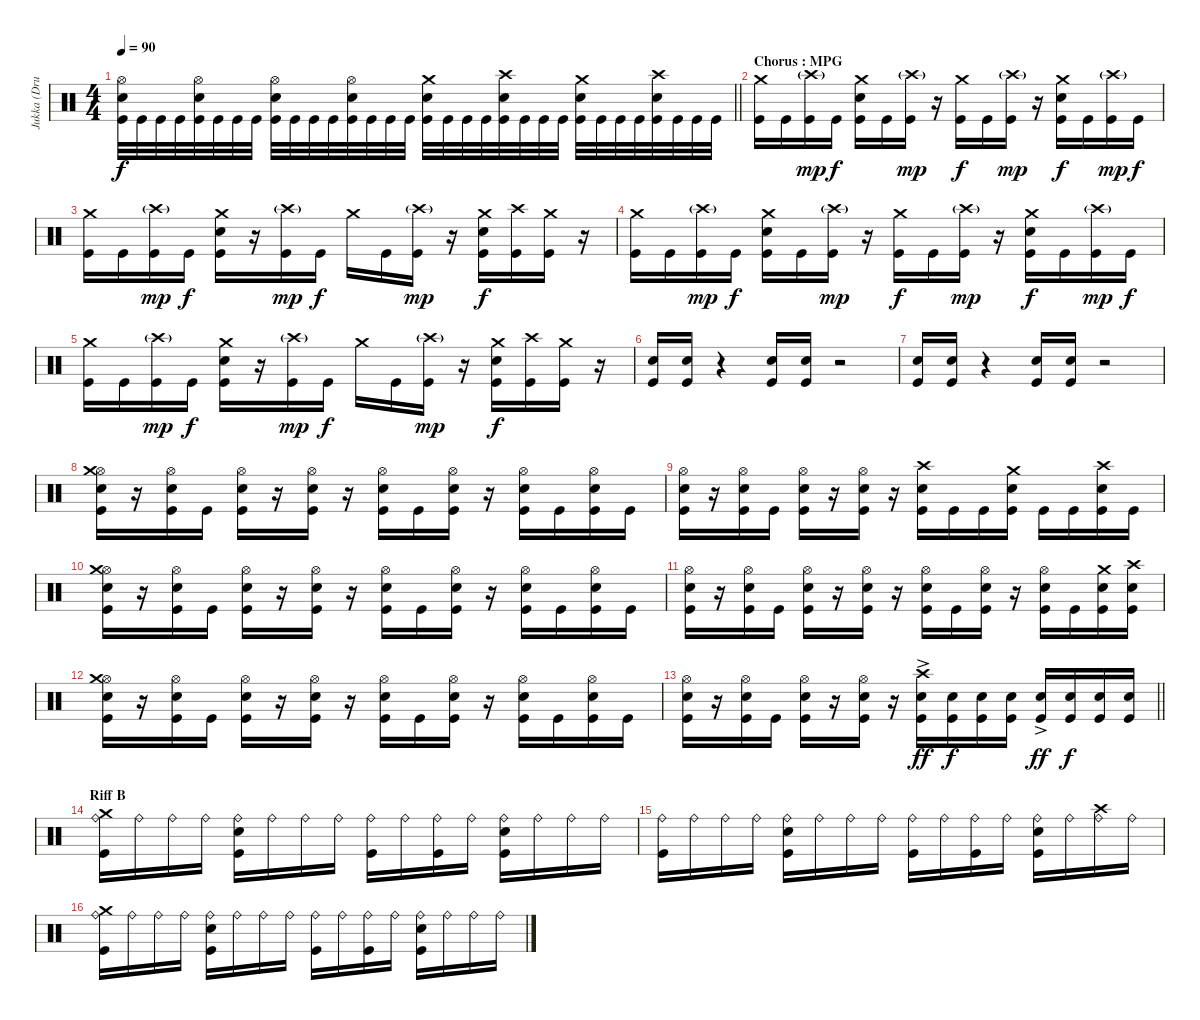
\track ("Jukka (Drums)" "Jukka (Dru") {instrument percussion}
\staff {score}
\articulation defaults
\ts (4 4)
\tempo 90
\clef neutral
\barLineRight lightlight
\ks c
("Hi-Hat (open)" "Snare (hit) 2" "Kick (hit)").32{dy f volume 16} "Kick (hit)".32 "Kick (hit)".32 "Kick (hit)".32 ("Hi-Hat (open)" "Snare (hit) 2" "Kick (hit)").32 "Kick (hit)".32 "Kick (hit)".32 "Kick (hit)".32 ("Hi-Hat (open)" "Snare (hit) 2" "Kick (hit)").32 "Kick (hit)".32 "Kick (hit)".32 "Kick (hit)".32 ("Hi-Hat (open)" "Snare (hit) 2" "Kick (hit)").32 "Kick (hit)".32 "Kick (hit)".32 "Kick (hit)".32 ("Crash medium (hit)" "Snare (hit) 2" "Kick (hit)").32 "Kick (hit)".32 "Kick (hit)".32 "Kick (hit)".32 ("Crash high (hit)" "Snare (hit) 2" "Kick (hit)").32 "Kick (hit)".32 "Kick (hit)".32 "Kick (hit)".32 ("Crash medium (hit)" "Snare (hit) 2" "Kick (hit)").32 "Kick (hit)".32 "Kick (hit)".32 "Kick (hit)".32 ("Crash high (hit)" "Snare (hit) 2" "Kick (hit)").32 "Kick (hit)".32 "Kick (hit)".32 "Kick (hit)".32 |
\section ("" "Chorus : MPG")
("Crash medium (hit)" "Kick (hit)").16 "Kick (hit)".16 ("Crash high (hit)"{g} "Kick (hit)").16{dy mp} "Kick (hit)".16{dy f} ("Crash medium (hit)" "Snare (hit) 2" "Kick (hit)").16 "Kick (hit)".16 ("Crash high (hit)"{g} "Kick (hit)").16{dy mp} r.16 ("Crash medium (hit)" "Kick (hit)").16{dy f} "Kick (hit)".16 ("Crash high (hit)"{g} "Kick (hit)").16{dy mp} r.16 ("Crash medium (hit)" "Snare (hit) 2" "Kick (hit)").16{dy f} "Kick (hit)".16 ("Crash high (hit)"{g} "Kick (hit)").16{dy mp} "Kick (hit)".16{dy f} |
("Crash medium (hit)" "Kick (hit)").16 "Kick (hit)".16 ("Crash high (hit)"{g} "Kick (hit)").16{dy mp} "Kick (hit)".16{dy f} ("Crash medium (hit)" "Snare (hit) 2" "Kick (hit)").16 r.16 ("Crash high (hit)"{g} "Kick (hit)").16{dy mp} "Kick (hit)".16{dy f} "Crash medium (hit)".16 "Kick (hit)".16 ("Crash high (hit)"{g} "Kick (hit)").16{dy mp} r.16 ("Crash medium (hit)" "Snare (hit) 2" "Kick (hit)").16{dy f} ("Crash high (hit)" "Kick (hit)").16 ("Crash medium (hit)" "Kick (hit)").16 r.16 |
("Crash medium (hit)" "Kick (hit)").16 "Kick (hit)".16 ("Crash high (hit)"{g} "Kick (hit)").16{dy mp} "Kick (hit)".16{dy f} ("Crash medium (hit)" "Snare (hit) 2" "Kick (hit)").16 "Kick (hit)".16 ("Crash high (hit)"{g} "Kick (hit)").16{dy mp} r.16 ("Crash medium (hit)" "Kick (hit)").16{dy f} "Kick (hit)".16 ("Crash high (hit)"{g} "Kick (hit)").16{dy mp} r.16 ("Crash medium (hit)" "Snare (hit) 2" "Kick (hit)").16{dy f} "Kick (hit)".16 ("Crash high (hit)"{g} "Kick (hit)").16{dy mp} "Kick (hit)".16{dy f} |
("Crash medium (hit)" "Kick (hit)").16 "Kick (hit)".16 ("Crash high (hit)"{g} "Kick (hit)").16{dy mp} "Kick (hit)".16{dy f} ("Crash medium (hit)" "Snare (hit) 2" "Kick (hit)").16 r.16 ("Crash high (hit)"{g} "Kick (hit)").16{dy mp} "Kick (hit)".16{dy f} "Crash medium (hit)".16 "Kick (hit)".16 ("Crash high (hit)"{g} "Kick (hit)").16{dy mp} r.16 ("Crash medium (hit)" "Snare (hit) 2" "Kick (hit)").16{dy f} ("Crash high (hit)" "Kick (hit)").16 ("Crash medium (hit)" "Kick (hit)").16 r.16 |
("Snare (hit) 2" "Kick (hit)").16 ("Snare (hit) 2" "Kick (hit)").16 r.4 ("Snare (hit) 2" "Kick (hit)").16 ("Snare (hit) 2" "Kick (hit)").16 r.2 |
("Snare (hit) 2" "Kick (hit)").16 ("Snare (hit) 2" "Kick (hit)").16 r.4 ("Snare (hit) 2" "Kick (hit)").16 ("Snare (hit) 2" "Kick (hit)").16 r.2 |
("Hi-Hat (open)" "Crash medium (hit)" "Snare (hit) 2" "Kick (hit)").16 r.16 ("Hi-Hat (open)" "Snare (hit) 2" "Kick (hit)").16 "Kick (hit)".16 ("Hi-Hat (open)" "Snare (hit) 2" "Kick (hit)").16 r.16 ("Hi-Hat (open)" "Snare (hit) 2" "Kick (hit)").16 r.16 ("Hi-Hat (open)" "Snare (hit) 2" "Kick (hit)").16 "Kick (hit)".16 ("Hi-Hat (open)" "Snare (hit) 2" "Kick (hit)").16 r.16 ("Hi-Hat (open)" "Snare (hit) 2" "Kick (hit)").16 "Kick (hit)".16 ("Hi-Hat (open)" "Snare (hit) 2" "Kick (hit)").16 "Kick (hit)".16 |
("Hi-Hat (open)" "Snare (hit) 2" "Kick (hit)").16 r.16 ("Hi-Hat (open)" "Snare (hit) 2" "Kick (hit)").16 "Kick (hit)".16 ("Hi-Hat (open)" "Snare (hit) 2" "Kick (hit)").16 r.16 ("Hi-Hat (open)" "Snare (hit) 2" "Kick (hit)").16 r.16 ("Crash high (hit)" "Snare (hit) 2" "Kick (hit)").16 "Kick (hit)".16 "Kick (hit)".16 ("Crash medium (hit)" "Snare (hit) 2" "Kick (hit)").16 "Kick (hit)".16 "Kick (hit)".16 ("Crash high (hit)" "Snare (hit) 2" "Kick (hit)").16 "Kick (hit)".16 |
("Hi-Hat (open)" "Crash medium (hit)" "Snare (hit) 2" "Kick (hit)").16 r.16 ("Hi-Hat (open)" "Snare (hit) 2" "Kick (hit)").16 "Kick (hit)".16 ("Hi-Hat (open)" "Snare (hit) 2" "Kick (hit)").16 r.16 ("Hi-Hat (open)" "Snare (hit) 2" "Kick (hit)").16 r.16 ("Hi-Hat (open)" "Snare (hit) 2" "Kick (hit)").16 "Kick (hit)".16 ("Hi-Hat (open)" "Snare (hit) 2" "Kick (hit)").16 r.16 ("Hi-Hat (open)" "Snare (hit) 2" "Kick (hit)").16 "Kick (hit)".16 ("Hi-Hat (open)" "Snare (hit) 2" "Kick (hit)").16 "Kick (hit)".16 |
("Hi-Hat (open)" "Snare (hit) 2" "Kick (hit)").16 r.16 ("Hi-Hat (open)" "Snare (hit) 2" "Kick (hit)").16 "Kick (hit)".16 ("Hi-Hat (open)" "Snare (hit) 2" "Kick (hit)").16 r.16 ("Hi-Hat (open)" "Snare (hit) 2" "Kick (hit)").16 r.16 ("Hi-Hat (open)" "Snare (hit) 2" "Kick (hit)").16 "Kick (hit)".16 ("Hi-Hat (open)" "Snare (hit) 2" "Kick (hit)").16 r.16 ("Hi-Hat (open)" "Snare (hit) 2" "Kick (hit)").16 "Kick (hit)".16 ("Crash medium (hit)" "Snare (hit) 2" "Kick (hit)").16 ("Crash high (hit)" "Snare (hit) 2" "Kick (hit)").16 |
("Hi-Hat (open)" "Crash medium (hit)" "Snare (hit) 2" "Kick (hit)").16 r.16 ("Hi-Hat (open)" "Snare (hit) 2" "Kick (hit)").16 "Kick (hit)".16 ("Hi-Hat (open)" "Snare (hit) 2" "Kick (hit)").16 r.16 ("Hi-Hat (open)" "Snare (hit) 2" "Kick (hit)").16 r.16 ("Hi-Hat (open)" "Snare (hit) 2" "Kick (hit)").16 "Kick (hit)".16 ("Hi-Hat (open)" "Snare (hit) 2" "Kick (hit)").16 r.16 ("Hi-Hat (open)" "Snare (hit) 2" "Kick (hit)").16 "Kick (hit)".16 ("Hi-Hat (open)" "Snare (hit) 2" "Kick (hit)").16 "Kick (hit)".16 |
\barLineRight lightlight
("Hi-Hat (open)" "Snare (hit) 2" "Kick (hit)").16 r.16 ("Hi-Hat (open)" "Snare (hit) 2" "Kick (hit)").16 "Kick (hit)".16 ("Hi-Hat (open)" "Snare (hit) 2" "Kick (hit)").16 r.16 ("Hi-Hat (open)" "Snare (hit) 2" "Kick (hit)").16 r.16 ("Crash high (hit)" "Snare (hit) 2"{ac} "Kick (hit)").16{dy ff} ("Snare (hit) 2" "Kick (hit)").16{dy f} ("Snare (hit) 2" "Kick (hit)").16 ("Snare (hit) 2" "Kick (hit)").16 ("Snare (hit) 2"{ac} "Kick (hit)").16{dy ff} ("Snare (hit) 2" "Kick (hit)").16{dy f} ("Snare (hit) 2" "Kick (hit)").16 ("Snare (hit) 2" "Kick (hit)").16 |
\section ("" "Riff B")
("Ride (bell)" "Crash medium (hit)" "Kick (hit)").16 "Ride (bell)".16 "Ride (bell)".16 "Ride (bell)".16 ("Ride (bell)" "Snare (hit) 2" "Kick (hit)").16 "Ride (bell)".16 "Ride (bell)".16 "Ride (bell)".16 ("Ride (bell)" "Kick (hit)").16 "Ride (bell)".16 ("Ride (bell)" "Kick (hit)").16 "Ride (bell)".16 ("Ride (bell)" "Snare (hit) 2" "Kick (hit)").16 "Ride (bell)".16 "Ride (bell)".16 "Ride (bell)".16 |
("Ride (bell)" "Kick (hit)").16 "Ride (bell)".16 "Ride (bell)".16 "Ride (bell)".16 ("Ride (bell)" "Snare (hit) 2" "Kick (hit)").16 "Ride (bell)".16 "Ride (bell)".16 "Ride (bell)".16 ("Ride (bell)" "Kick (hit)").16 "Ride (bell)".16 ("Ride (bell)" "Kick (hit)").16 "Ride (bell)".16 ("Ride (bell)" "Snare (hit) 2" "Kick (hit)").16 "Ride (bell)".16 ("Ride (bell)" "Crash high (hit)").16 "Ride (bell)".16 |
("Ride (bell)" "Crash medium (hit)" "Kick (hit)").16 "Ride (bell)".16 "Ride (bell)".16 "Ride (bell)".16 ("Ride (bell)" "Snare (hit) 2" "Kick (hit)").16 "Ride (bell)".16 "Ride (bell)".16 "Ride (bell)".16 ("Ride (bell)" "Kick (hit)").16 "Ride (bell)".16 ("Ride (bell)" "Kick (hit)").16 "Ride (bell)".16 ("Ride (bell)" "Snare (hit) 2" "Kick (hit)").16 "Ride (bell)".16 "Ride (bell)".16 "Ride (bell)".16
